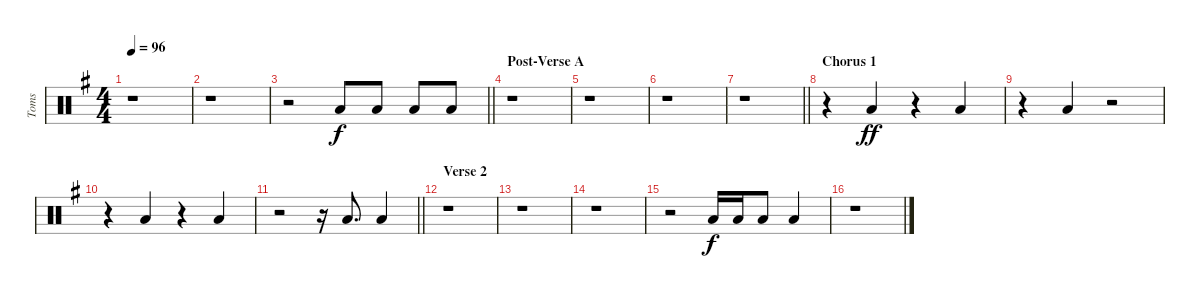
\track ("Toms" "Toms") {instrument percussion}
\staff {score}
\articulation defaults
\ts (4 4)
\tempo 96
\clef neutral
\ks g
r.1{dy f} |
r.1 |
\barLineRight lightlight
r.2{beam Up} "Low Tom (hit)".8{balance 4 beam Up} "Low Tom (hit)".8{beam Up} "Low Tom (hit)".8{beam Up} "Low Tom (hit)".8{beam Up} |
\section ("" "Post-Verse A")
r.1 |
r.1 |
r.1 |
\barLineRight lightlight
r.1 |
\section ("" "Chorus 1")
r.4 "Low Tom (hit)".4{dy ff} r.4 "Low Tom (hit)".4 |
r.4 "Low Tom (hit)".4 r.2 |
r.4{beam merge} "Low Tom (hit)".4 r.4 "Low Tom (hit)".4 |
\barLineRight lightlight
r.2 r.16 "Low Tom (hit)".8{d} "Low Tom (hit)".4 |
\section ("" "Verse 2")
r.1 |
r.1 |
r.1 |
r.2 "Low Tom (hit)".16{dy f} "Low Tom (hit)".16 "Low Tom (hit)".8 "Low Tom (hit)".4 |
r.1
